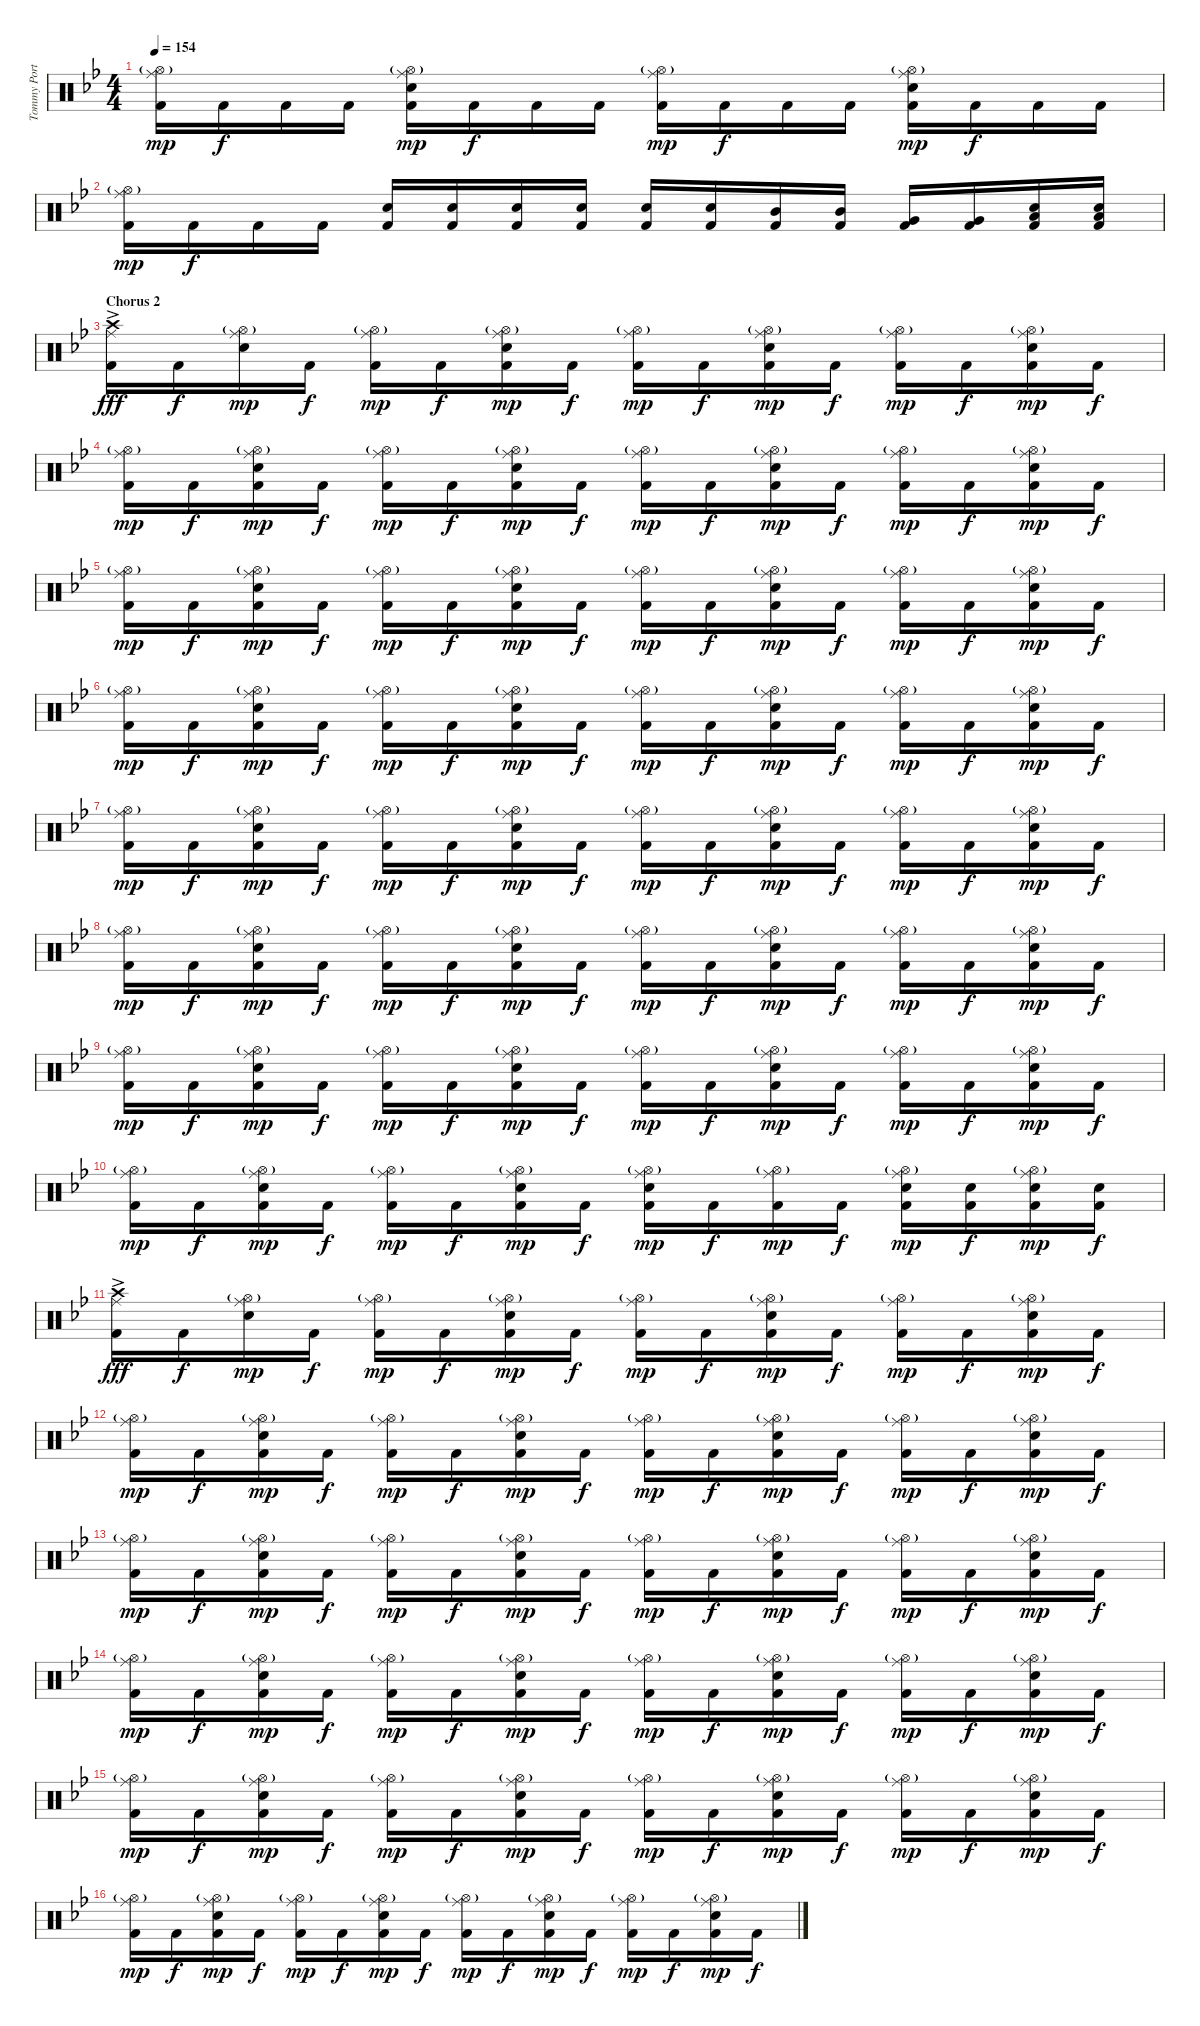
\track ("Tommy Portimo" "Tommy Port") {instrument percussion}
\staff {score}
\articulation defaults
\ts (4 4)
\tempo 154
\clef neutral
\ks gminor
("Hi-Hat (open)"{g} "Ride (middle)" "Kick (hit) 2").16{dy mp} "Kick (hit) 2".16{dy f} "Kick (hit) 2".16 "Kick (hit) 2".16 ("Hi-Hat (open)"{g} "Ride (middle)" "Electric Snare (hit)" "Kick (hit) 2").16{dy mp} "Kick (hit) 2".16{dy f} "Kick (hit) 2".16 "Kick (hit) 2".16 ("Hi-Hat (open)"{g} "Ride (middle)" "Kick (hit) 2").16{dy mp} "Kick (hit) 2".16{dy f} "Kick (hit) 2".16 "Kick (hit) 2".16 ("Hi-Hat (open)"{g} "Ride (middle)" "Electric Snare (hit)" "Kick (hit) 2").16{dy mp} "Kick (hit) 2".16{dy f} "Kick (hit) 2".16 "Kick (hit) 2".16 |
("Hi-Hat (open)"{g} "Ride (middle)" "Kick (hit) 2").16{dy mp} "Kick (hit) 2".16{dy f} "Kick (hit) 2".16 "Kick (hit) 2".16 ("Electric Snare (hit)" "Kick (hit) 2").16 ("Electric Snare (hit)" "Kick (hit) 2").16 ("Electric Snare (hit)" "Kick (hit) 2").16 ("Electric Snare (hit)" "Kick (hit) 2").16 ("Electric Snare (hit)" "Kick (hit) 2").16 ("Electric Snare (hit)" "Kick (hit) 2").16 ("Mid Tom (hit)" "Kick (hit) 2").16 ("Mid Tom (hit)" "Kick (hit) 2").16 ("Very Low Tom (hit)" "Kick (hit) 2").16 ("Very Low Tom (hit)" "Kick (hit) 2").16 ("Low Floor Tom (hit)" "Electric Snare (hit)" "Kick (hit) 2").16 ("Low Floor Tom (hit)" "Electric Snare (hit)" "Kick (hit) 2").16 |
\section ("" "Chorus 2")
("Crash high (hit)"{ac} "Ride (middle)" "Kick (hit) 2").16{dy fff} "Kick (hit) 2".16{dy f} ("Hi-Hat (open)"{g} "Ride (middle)" "Electric Snare (hit)").16{dy mp} "Kick (hit) 2".16{dy f} ("Hi-Hat (open)"{g} "Ride (middle)" "Kick (hit) 2").16{dy mp} "Kick (hit) 2".16{dy f} ("Hi-Hat (open)"{g} "Ride (middle)" "Electric Snare (hit)" "Kick (hit) 2").16{dy mp} "Kick (hit) 2".16{dy f} ("Hi-Hat (open)"{g} "Ride (middle)" "Kick (hit) 2").16{dy mp} "Kick (hit) 2".16{dy f} ("Hi-Hat (open)"{g} "Ride (middle)" "Electric Snare (hit)" "Kick (hit) 2").16{dy mp} "Kick (hit) 2".16{dy f} ("Hi-Hat (open)"{g} "Ride (middle)" "Kick (hit) 2").16{dy mp} "Kick (hit) 2".16{dy f} ("Hi-Hat (open)"{g} "Ride (middle)" "Electric Snare (hit)" "Kick (hit) 2").16{dy mp} "Kick (hit) 2".16{dy f} |
("Hi-Hat (open)"{g} "Ride (middle)" "Kick (hit) 2").16{dy mp} "Kick (hit) 2".16{dy f} ("Hi-Hat (open)"{g} "Ride (middle)" "Electric Snare (hit)" "Kick (hit) 2").16{dy mp} "Kick (hit) 2".16{dy f} ("Hi-Hat (open)"{g} "Ride (middle)" "Kick (hit) 2").16{dy mp} "Kick (hit) 2".16{dy f} ("Hi-Hat (open)"{g} "Ride (middle)" "Electric Snare (hit)" "Kick (hit) 2").16{dy mp} "Kick (hit) 2".16{dy f} ("Hi-Hat (open)"{g} "Ride (middle)" "Kick (hit) 2").16{dy mp} "Kick (hit) 2".16{dy f} ("Hi-Hat (open)"{g} "Ride (middle)" "Electric Snare (hit)" "Kick (hit) 2").16{dy mp} "Kick (hit) 2".16{dy f} ("Hi-Hat (open)"{g} "Ride (middle)" "Kick (hit) 2").16{dy mp} "Kick (hit) 2".16{dy f} ("Hi-Hat (open)"{g} "Ride (middle)" "Electric Snare (hit)" "Kick (hit) 2").16{dy mp} "Kick (hit) 2".16{dy f} |
("Hi-Hat (open)"{g} "Ride (middle)" "Kick (hit) 2").16{dy mp} "Kick (hit) 2".16{dy f} ("Hi-Hat (open)"{g} "Ride (middle)" "Electric Snare (hit)" "Kick (hit) 2").16{dy mp} "Kick (hit) 2".16{dy f} ("Hi-Hat (open)"{g} "Ride (middle)" "Kick (hit) 2").16{dy mp} "Kick (hit) 2".16{dy f} ("Hi-Hat (open)"{g} "Ride (middle)" "Electric Snare (hit)" "Kick (hit) 2").16{dy mp} "Kick (hit) 2".16{dy f} ("Hi-Hat (open)"{g} "Ride (middle)" "Kick (hit) 2").16{dy mp} "Kick (hit) 2".16{dy f} ("Hi-Hat (open)"{g} "Ride (middle)" "Electric Snare (hit)" "Kick (hit) 2").16{dy mp} "Kick (hit) 2".16{dy f} ("Hi-Hat (open)"{g} "Ride (middle)" "Kick (hit) 2").16{dy mp} "Kick (hit) 2".16{dy f} ("Hi-Hat (open)"{g} "Ride (middle)" "Electric Snare (hit)" "Kick (hit) 2").16{dy mp} "Kick (hit) 2".16{dy f} |
("Hi-Hat (open)"{g} "Ride (middle)" "Kick (hit) 2").16{dy mp} "Kick (hit) 2".16{dy f} ("Hi-Hat (open)"{g} "Ride (middle)" "Electric Snare (hit)" "Kick (hit) 2").16{dy mp} "Kick (hit) 2".16{dy f} ("Hi-Hat (open)"{g} "Ride (middle)" "Kick (hit) 2").16{dy mp} "Kick (hit) 2".16{dy f} ("Hi-Hat (open)"{g} "Ride (middle)" "Electric Snare (hit)" "Kick (hit) 2").16{dy mp} "Kick (hit) 2".16{dy f} ("Hi-Hat (open)"{g} "Ride (middle)" "Kick (hit) 2").16{dy mp} "Kick (hit) 2".16{dy f} ("Hi-Hat (open)"{g} "Ride (middle)" "Electric Snare (hit)" "Kick (hit) 2").16{dy mp} "Kick (hit) 2".16{dy f} ("Hi-Hat (open)"{g} "Ride (middle)" "Kick (hit) 2").16{dy mp} "Kick (hit) 2".16{dy f} ("Hi-Hat (open)"{g} "Ride (middle)" "Electric Snare (hit)" "Kick (hit) 2").16{dy mp} "Kick (hit) 2".16{dy f} |
("Hi-Hat (open)"{g} "Ride (middle)" "Kick (hit) 2").16{dy mp} "Kick (hit) 2".16{dy f} ("Hi-Hat (open)"{g} "Ride (middle)" "Electric Snare (hit)" "Kick (hit) 2").16{dy mp} "Kick (hit) 2".16{dy f} ("Hi-Hat (open)"{g} "Ride (middle)" "Kick (hit) 2").16{dy mp} "Kick (hit) 2".16{dy f} ("Hi-Hat (open)"{g} "Ride (middle)" "Electric Snare (hit)" "Kick (hit) 2").16{dy mp} "Kick (hit) 2".16{dy f} ("Hi-Hat (open)"{g} "Ride (middle)" "Kick (hit) 2").16{dy mp} "Kick (hit) 2".16{dy f} ("Hi-Hat (open)"{g} "Ride (middle)" "Electric Snare (hit)" "Kick (hit) 2").16{dy mp} "Kick (hit) 2".16{dy f} ("Hi-Hat (open)"{g} "Ride (middle)" "Kick (hit) 2").16{dy mp} "Kick (hit) 2".16{dy f} ("Hi-Hat (open)"{g} "Ride (middle)" "Electric Snare (hit)" "Kick (hit) 2").16{dy mp} "Kick (hit) 2".16{dy f} |
("Hi-Hat (open)"{g} "Ride (middle)" "Kick (hit) 2").16{dy mp} "Kick (hit) 2".16{dy f} ("Hi-Hat (open)"{g} "Ride (middle)" "Electric Snare (hit)" "Kick (hit) 2").16{dy mp} "Kick (hit) 2".16{dy f} ("Hi-Hat (open)"{g} "Ride (middle)" "Kick (hit) 2").16{dy mp} "Kick (hit) 2".16{dy f} ("Hi-Hat (open)"{g} "Ride (middle)" "Electric Snare (hit)" "Kick (hit) 2").16{dy mp} "Kick (hit) 2".16{dy f} ("Hi-Hat (open)"{g} "Ride (middle)" "Kick (hit) 2").16{dy mp} "Kick (hit) 2".16{dy f} ("Hi-Hat (open)"{g} "Ride (middle)" "Electric Snare (hit)" "Kick (hit) 2").16{dy mp} "Kick (hit) 2".16{dy f} ("Hi-Hat (open)"{g} "Ride (middle)" "Kick (hit) 2").16{dy mp} "Kick (hit) 2".16{dy f} ("Hi-Hat (open)"{g} "Ride (middle)" "Electric Snare (hit)" "Kick (hit) 2").16{dy mp} "Kick (hit) 2".16{dy f} |
("Hi-Hat (open)"{g} "Ride (middle)" "Kick (hit) 2").16{dy mp} "Kick (hit) 2".16{dy f} ("Hi-Hat (open)"{g} "Ride (middle)" "Electric Snare (hit)" "Kick (hit) 2").16{dy mp} "Kick (hit) 2".16{dy f} ("Hi-Hat (open)"{g} "Ride (middle)" "Kick (hit) 2").16{dy mp} "Kick (hit) 2".16{dy f} ("Hi-Hat (open)"{g} "Ride (middle)" "Electric Snare (hit)" "Kick (hit) 2").16{dy mp} "Kick (hit) 2".16{dy f} ("Hi-Hat (open)"{g} "Ride (middle)" "Kick (hit) 2").16{dy mp} "Kick (hit) 2".16{dy f} ("Hi-Hat (open)"{g} "Ride (middle)" "Electric Snare (hit)" "Kick (hit) 2").16{dy mp} "Kick (hit) 2".16{dy f} ("Hi-Hat (open)"{g} "Ride (middle)" "Kick (hit) 2").16{dy mp} "Kick (hit) 2".16{dy f} ("Hi-Hat (open)"{g} "Ride (middle)" "Electric Snare (hit)" "Kick (hit) 2").16{dy mp} "Kick (hit) 2".16{dy f} |
("Hi-Hat (open)"{g} "Ride (middle)" "Kick (hit) 2").16{dy mp} "Kick (hit) 2".16{dy f} ("Hi-Hat (open)"{g} "Ride (middle)" "Electric Snare (hit)" "Kick (hit) 2").16{dy mp} "Kick (hit) 2".16{dy f} ("Hi-Hat (open)"{g} "Ride (middle)" "Kick (hit) 2").16{dy mp} "Kick (hit) 2".16{dy f} ("Hi-Hat (open)"{g} "Ride (middle)" "Electric Snare (hit)" "Kick (hit) 2").16{dy mp} "Kick (hit) 2".16{dy f} ("Hi-Hat (open)"{g} "Ride (middle)" "Electric Snare (hit)" "Kick (hit) 2").16{dy mp} "Kick (hit) 2".16{dy f} ("Hi-Hat (open)"{g} "Ride (middle)" "Kick (hit) 2").16{dy mp} "Kick (hit) 2".16{dy f} ("Hi-Hat (open)"{g} "Ride (middle)" "Electric Snare (hit)" "Kick (hit) 2").16{dy mp} ("Electric Snare (hit)" "Kick (hit) 2").16{dy f} ("Hi-Hat (open)"{g} "Ride (middle)" "Electric Snare (hit)" "Kick (hit) 2").16{dy mp} ("Electric Snare (hit)" "Kick (hit) 2").16{dy f} |
("Crash high (hit)"{ac} "Ride (middle)" "Kick (hit) 2").16{dy fff} "Kick (hit) 2".16{dy f} ("Hi-Hat (open)"{g} "Ride (middle)" "Electric Snare (hit)").16{dy mp} "Kick (hit) 2".16{dy f} ("Hi-Hat (open)"{g} "Ride (middle)" "Kick (hit) 2").16{dy mp} "Kick (hit) 2".16{dy f} ("Hi-Hat (open)"{g} "Ride (middle)" "Electric Snare (hit)" "Kick (hit) 2").16{dy mp} "Kick (hit) 2".16{dy f} ("Hi-Hat (open)"{g} "Ride (middle)" "Kick (hit) 2").16{dy mp} "Kick (hit) 2".16{dy f} ("Hi-Hat (open)"{g} "Ride (middle)" "Electric Snare (hit)" "Kick (hit) 2").16{dy mp} "Kick (hit) 2".16{dy f} ("Hi-Hat (open)"{g} "Ride (middle)" "Kick (hit) 2").16{dy mp} "Kick (hit) 2".16{dy f} ("Hi-Hat (open)"{g} "Ride (middle)" "Electric Snare (hit)" "Kick (hit) 2").16{dy mp} "Kick (hit) 2".16{dy f} |
("Hi-Hat (open)"{g} "Ride (middle)" "Kick (hit) 2").16{dy mp} "Kick (hit) 2".16{dy f} ("Hi-Hat (open)"{g} "Ride (middle)" "Electric Snare (hit)" "Kick (hit) 2").16{dy mp} "Kick (hit) 2".16{dy f} ("Hi-Hat (open)"{g} "Ride (middle)" "Kick (hit) 2").16{dy mp} "Kick (hit) 2".16{dy f} ("Hi-Hat (open)"{g} "Ride (middle)" "Electric Snare (hit)" "Kick (hit) 2").16{dy mp} "Kick (hit) 2".16{dy f} ("Hi-Hat (open)"{g} "Ride (middle)" "Kick (hit) 2").16{dy mp} "Kick (hit) 2".16{dy f} ("Hi-Hat (open)"{g} "Ride (middle)" "Electric Snare (hit)" "Kick (hit) 2").16{dy mp} "Kick (hit) 2".16{dy f} ("Hi-Hat (open)"{g} "Ride (middle)" "Kick (hit) 2").16{dy mp} "Kick (hit) 2".16{dy f} ("Hi-Hat (open)"{g} "Ride (middle)" "Electric Snare (hit)" "Kick (hit) 2").16{dy mp} "Kick (hit) 2".16{dy f} |
("Hi-Hat (open)"{g} "Ride (middle)" "Kick (hit) 2").16{dy mp} "Kick (hit) 2".16{dy f} ("Hi-Hat (open)"{g} "Ride (middle)" "Electric Snare (hit)" "Kick (hit) 2").16{dy mp} "Kick (hit) 2".16{dy f} ("Hi-Hat (open)"{g} "Ride (middle)" "Kick (hit) 2").16{dy mp} "Kick (hit) 2".16{dy f} ("Hi-Hat (open)"{g} "Ride (middle)" "Electric Snare (hit)" "Kick (hit) 2").16{dy mp} "Kick (hit) 2".16{dy f} ("Hi-Hat (open)"{g} "Ride (middle)" "Kick (hit) 2").16{dy mp} "Kick (hit) 2".16{dy f} ("Hi-Hat (open)"{g} "Ride (middle)" "Electric Snare (hit)" "Kick (hit) 2").16{dy mp} "Kick (hit) 2".16{dy f} ("Hi-Hat (open)"{g} "Ride (middle)" "Kick (hit) 2").16{dy mp} "Kick (hit) 2".16{dy f} ("Hi-Hat (open)"{g} "Ride (middle)" "Electric Snare (hit)" "Kick (hit) 2").16{dy mp} "Kick (hit) 2".16{dy f} |
("Hi-Hat (open)"{g} "Ride (middle)" "Kick (hit) 2").16{dy mp} "Kick (hit) 2".16{dy f} ("Hi-Hat (open)"{g} "Ride (middle)" "Electric Snare (hit)" "Kick (hit) 2").16{dy mp} "Kick (hit) 2".16{dy f} ("Hi-Hat (open)"{g} "Ride (middle)" "Kick (hit) 2").16{dy mp} "Kick (hit) 2".16{dy f} ("Hi-Hat (open)"{g} "Ride (middle)" "Electric Snare (hit)" "Kick (hit) 2").16{dy mp} "Kick (hit) 2".16{dy f} ("Hi-Hat (open)"{g} "Ride (middle)" "Kick (hit) 2").16{dy mp} "Kick (hit) 2".16{dy f} ("Hi-Hat (open)"{g} "Ride (middle)" "Electric Snare (hit)" "Kick (hit) 2").16{dy mp} "Kick (hit) 2".16{dy f} ("Hi-Hat (open)"{g} "Ride (middle)" "Kick (hit) 2").16{dy mp} "Kick (hit) 2".16{dy f} ("Hi-Hat (open)"{g} "Ride (middle)" "Electric Snare (hit)" "Kick (hit) 2").16{dy mp} "Kick (hit) 2".16{dy f} |
("Hi-Hat (open)"{g} "Ride (middle)" "Kick (hit) 2").16{dy mp} "Kick (hit) 2".16{dy f} ("Hi-Hat (open)"{g} "Ride (middle)" "Electric Snare (hit)" "Kick (hit) 2").16{dy mp} "Kick (hit) 2".16{dy f} ("Hi-Hat (open)"{g} "Ride (middle)" "Kick (hit) 2").16{dy mp} "Kick (hit) 2".16{dy f} ("Hi-Hat (open)"{g} "Ride (middle)" "Electric Snare (hit)" "Kick (hit) 2").16{dy mp} "Kick (hit) 2".16{dy f} ("Hi-Hat (open)"{g} "Ride (middle)" "Kick (hit) 2").16{dy mp} "Kick (hit) 2".16{dy f} ("Hi-Hat (open)"{g} "Ride (middle)" "Electric Snare (hit)" "Kick (hit) 2").16{dy mp} "Kick (hit) 2".16{dy f} ("Hi-Hat (open)"{g} "Ride (middle)" "Kick (hit) 2").16{dy mp} "Kick (hit) 2".16{dy f} ("Hi-Hat (open)"{g} "Ride (middle)" "Electric Snare (hit)" "Kick (hit) 2").16{dy mp} "Kick (hit) 2".16{dy f} |
("Hi-Hat (open)"{g} "Ride (middle)" "Kick (hit) 2").16{dy mp} "Kick (hit) 2".16{dy f} ("Hi-Hat (open)"{g} "Ride (middle)" "Electric Snare (hit)" "Kick (hit) 2").16{dy mp} "Kick (hit) 2".16{dy f} ("Hi-Hat (open)"{g} "Ride (middle)" "Kick (hit) 2").16{dy mp} "Kick (hit) 2".16{dy f} ("Hi-Hat (open)"{g} "Ride (middle)" "Electric Snare (hit)" "Kick (hit) 2").16{dy mp} "Kick (hit) 2".16{dy f} ("Hi-Hat (open)"{g} "Ride (middle)" "Kick (hit) 2").16{dy mp} "Kick (hit) 2".16{dy f} ("Hi-Hat (open)"{g} "Ride (middle)" "Electric Snare (hit)" "Kick (hit) 2").16{dy mp} "Kick (hit) 2".16{dy f} ("Hi-Hat (open)"{g} "Ride (middle)" "Kick (hit) 2").16{dy mp} "Kick (hit) 2".16{dy f} ("Hi-Hat (open)"{g} "Ride (middle)" "Electric Snare (hit)" "Kick (hit) 2").16{dy mp} "Kick (hit) 2".16{dy f}
